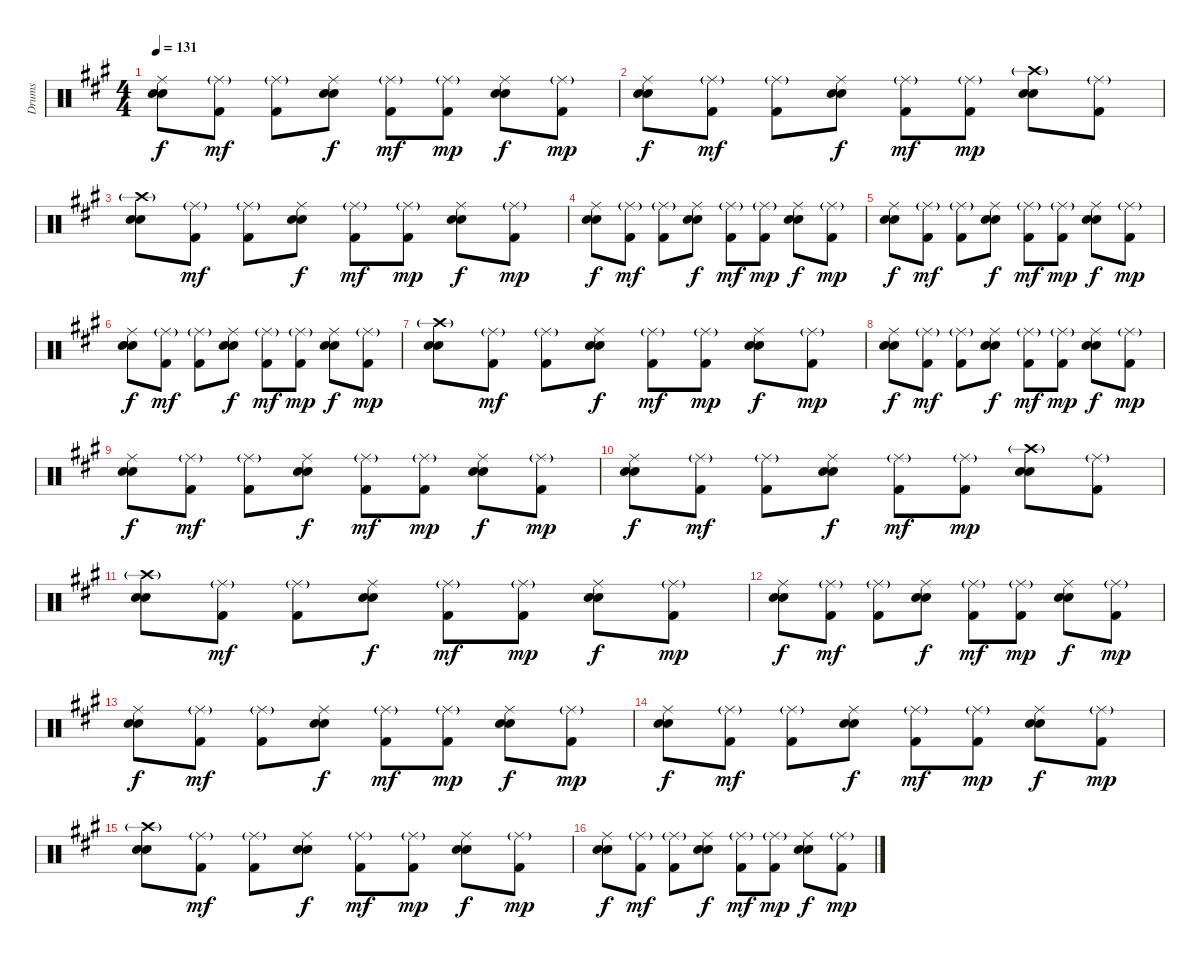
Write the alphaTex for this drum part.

\track ("Drums" "Drums") {instrument percussion}
\staff {score}
\articulation defaults
\ts (4 4)
\tempo 131
\clef neutral
\ks a
("Ride (middle)" "Electric Snare (hit)" "Snare (hit) 2").8{dy f} ("Ride (middle)"{g} "Kick (hit) 2").8{dy mf} ("Ride (middle)"{g} "Kick (hit) 2").8 ("Ride (middle)" "Electric Snare (hit)" "Snare (hit) 2").8{dy f} ("Ride (middle)"{g} "Kick (hit) 2").8{dy mf} ("Ride (middle)"{g} "Kick (hit) 2").8{dy mp} ("Ride (middle)" "Electric Snare (hit)" "Snare (hit) 2").8{dy f} ("Ride (middle)"{g} "Kick (hit) 2").8{dy mp} |
("Ride (middle)" "Electric Snare (hit)" "Snare (hit) 2").8{dy f} ("Ride (middle)"{g} "Kick (hit) 2").8{dy mf} ("Ride (middle)"{g} "Kick (hit) 2").8 ("Ride (middle)" "Electric Snare (hit)" "Snare (hit) 2").8{dy f} ("Ride (middle)"{g} "Kick (hit) 2").8{dy mf} ("Ride (middle)"{g} "Kick (hit) 2").8{dy mp} ("Crash high (hit)"{g} "Electric Snare (hit)" "Snare (hit) 2").8 ("Ride (middle)"{g} "Kick (hit) 2").8 |
("Crash high (hit)"{g} "Electric Snare (hit)" "Snare (hit) 2").8 ("Ride (middle)"{g} "Kick (hit) 2").8{dy mf} ("Ride (middle)"{g} "Kick (hit) 2").8 ("Ride (middle)" "Electric Snare (hit)" "Snare (hit) 2").8{dy f} ("Ride (middle)"{g} "Kick (hit) 2").8{dy mf} ("Ride (middle)"{g} "Kick (hit) 2").8{dy mp} ("Ride (middle)" "Electric Snare (hit)" "Snare (hit) 2").8{dy f} ("Ride (middle)"{g} "Kick (hit) 2").8{dy mp} |
("Ride (middle)" "Electric Snare (hit)" "Snare (hit) 2").8{dy f} ("Ride (middle)"{g} "Kick (hit) 2").8{dy mf} ("Ride (middle)"{g} "Kick (hit) 2").8 ("Ride (middle)" "Electric Snare (hit)" "Snare (hit) 2").8{dy f} ("Ride (middle)"{g} "Kick (hit) 2").8{dy mf} ("Ride (middle)"{g} "Kick (hit) 2").8{dy mp} ("Ride (middle)" "Electric Snare (hit)" "Snare (hit) 2").8{dy f} ("Ride (middle)"{g} "Kick (hit) 2").8{dy mp} |
("Ride (middle)" "Electric Snare (hit)" "Snare (hit) 2").8{dy f} ("Ride (middle)"{g} "Kick (hit) 2").8{dy mf} ("Ride (middle)"{g} "Kick (hit) 2").8 ("Ride (middle)" "Electric Snare (hit)" "Snare (hit) 2").8{dy f} ("Ride (middle)"{g} "Kick (hit) 2").8{dy mf} ("Ride (middle)"{g} "Kick (hit) 2").8{dy mp} ("Ride (middle)" "Electric Snare (hit)" "Snare (hit) 2").8{dy f} ("Ride (middle)"{g} "Kick (hit) 2").8{dy mp} |
("Ride (middle)" "Electric Snare (hit)" "Snare (hit) 2").8{dy f} ("Ride (middle)"{g} "Kick (hit) 2").8{dy mf} ("Ride (middle)"{g} "Kick (hit) 2").8 ("Ride (middle)" "Electric Snare (hit)" "Snare (hit) 2").8{dy f} ("Ride (middle)"{g} "Kick (hit) 2").8{dy mf} ("Ride (middle)"{g} "Kick (hit) 2").8{dy mp} ("Ride (middle)" "Electric Snare (hit)" "Snare (hit) 2").8{dy f} ("Ride (middle)"{g} "Kick (hit) 2").8{dy mp} |
("Crash high (hit)"{g} "Electric Snare (hit)" "Snare (hit) 2").8 ("Ride (middle)"{g} "Kick (hit) 2").8{dy mf} ("Ride (middle)"{g} "Kick (hit) 2").8 ("Ride (middle)" "Electric Snare (hit)" "Snare (hit) 2").8{dy f} ("Ride (middle)"{g} "Kick (hit) 2").8{dy mf} ("Ride (middle)"{g} "Kick (hit) 2").8{dy mp} ("Ride (middle)" "Electric Snare (hit)" "Snare (hit) 2").8{dy f} ("Ride (middle)"{g} "Kick (hit) 2").8{dy mp} |
("Ride (middle)" "Electric Snare (hit)" "Snare (hit) 2").8{dy f} ("Ride (middle)"{g} "Kick (hit) 2").8{dy mf} ("Ride (middle)"{g} "Kick (hit) 2").8 ("Ride (middle)" "Electric Snare (hit)" "Snare (hit) 2").8{dy f} ("Ride (middle)"{g} "Kick (hit) 2").8{dy mf} ("Ride (middle)"{g} "Kick (hit) 2").8{dy mp} ("Ride (middle)" "Electric Snare (hit)" "Snare (hit) 2").8{dy f} ("Ride (middle)"{g} "Kick (hit) 2").8{dy mp} |
("Ride (middle)" "Electric Snare (hit)" "Snare (hit) 2").8{dy f} ("Ride (middle)"{g} "Kick (hit) 2").8{dy mf} ("Ride (middle)"{g} "Kick (hit) 2").8 ("Ride (middle)" "Electric Snare (hit)" "Snare (hit) 2").8{dy f} ("Ride (middle)"{g} "Kick (hit) 2").8{dy mf} ("Ride (middle)"{g} "Kick (hit) 2").8{dy mp} ("Ride (middle)" "Electric Snare (hit)" "Snare (hit) 2").8{dy f} ("Ride (middle)"{g} "Kick (hit) 2").8{dy mp} |
("Ride (middle)" "Electric Snare (hit)" "Snare (hit) 2").8{dy f} ("Ride (middle)"{g} "Kick (hit) 2").8{dy mf} ("Ride (middle)"{g} "Kick (hit) 2").8 ("Ride (middle)" "Electric Snare (hit)" "Snare (hit) 2").8{dy f} ("Ride (middle)"{g} "Kick (hit) 2").8{dy mf} ("Ride (middle)"{g} "Kick (hit) 2").8{dy mp} ("Crash high (hit)"{g} "Electric Snare (hit)" "Snare (hit) 2").8 ("Ride (middle)"{g} "Kick (hit) 2").8 |
("Crash high (hit)"{g} "Electric Snare (hit)" "Snare (hit) 2").8 ("Ride (middle)"{g} "Kick (hit) 2").8{dy mf} ("Ride (middle)"{g} "Kick (hit) 2").8 ("Ride (middle)" "Electric Snare (hit)" "Snare (hit) 2").8{dy f} ("Ride (middle)"{g} "Kick (hit) 2").8{dy mf} ("Ride (middle)"{g} "Kick (hit) 2").8{dy mp} ("Ride (middle)" "Electric Snare (hit)" "Snare (hit) 2").8{dy f} ("Ride (middle)"{g} "Kick (hit) 2").8{dy mp} |
("Ride (middle)" "Electric Snare (hit)" "Snare (hit) 2").8{dy f} ("Ride (middle)"{g} "Kick (hit) 2").8{dy mf} ("Ride (middle)"{g} "Kick (hit) 2").8 ("Ride (middle)" "Electric Snare (hit)" "Snare (hit) 2").8{dy f} ("Ride (middle)"{g} "Kick (hit) 2").8{dy mf} ("Ride (middle)"{g} "Kick (hit) 2").8{dy mp} ("Ride (middle)" "Electric Snare (hit)" "Snare (hit) 2").8{dy f} ("Ride (middle)"{g} "Kick (hit) 2").8{dy mp} |
("Ride (middle)" "Electric Snare (hit)" "Snare (hit) 2").8{dy f} ("Ride (middle)"{g} "Kick (hit) 2").8{dy mf} ("Ride (middle)"{g} "Kick (hit) 2").8 ("Ride (middle)" "Electric Snare (hit)" "Snare (hit) 2").8{dy f} ("Ride (middle)"{g} "Kick (hit) 2").8{dy mf} ("Ride (middle)"{g} "Kick (hit) 2").8{dy mp} ("Ride (middle)" "Electric Snare (hit)" "Snare (hit) 2").8{dy f} ("Ride (middle)"{g} "Kick (hit) 2").8{dy mp} |
("Ride (middle)" "Electric Snare (hit)" "Snare (hit) 2").8{dy f} ("Ride (middle)"{g} "Kick (hit) 2").8{dy mf} ("Ride (middle)"{g} "Kick (hit) 2").8 ("Ride (middle)" "Electric Snare (hit)" "Snare (hit) 2").8{dy f} ("Ride (middle)"{g} "Kick (hit) 2").8{dy mf} ("Ride (middle)"{g} "Kick (hit) 2").8{dy mp} ("Ride (middle)" "Electric Snare (hit)" "Snare (hit) 2").8{dy f} ("Ride (middle)"{g} "Kick (hit) 2").8{dy mp} |
("Crash high (hit)"{g} "Electric Snare (hit)" "Snare (hit) 2").8 ("Ride (middle)"{g} "Kick (hit) 2").8{dy mf} ("Ride (middle)"{g} "Kick (hit) 2").8 ("Ride (middle)" "Electric Snare (hit)" "Snare (hit) 2").8{dy f} ("Ride (middle)"{g} "Kick (hit) 2").8{dy mf} ("Ride (middle)"{g} "Kick (hit) 2").8{dy mp} ("Ride (middle)" "Electric Snare (hit)" "Snare (hit) 2").8{dy f} ("Ride (middle)"{g} "Kick (hit) 2").8{dy mp} |
("Ride (middle)" "Electric Snare (hit)" "Snare (hit) 2").8{dy f} ("Ride (middle)"{g} "Kick (hit) 2").8{dy mf} ("Ride (middle)"{g} "Kick (hit) 2").8 ("Ride (middle)" "Electric Snare (hit)" "Snare (hit) 2").8{dy f} ("Ride (middle)"{g} "Kick (hit) 2").8{dy mf} ("Ride (middle)"{g} "Kick (hit) 2").8{dy mp} ("Ride (middle)" "Electric Snare (hit)" "Snare (hit) 2").8{dy f} ("Ride (middle)"{g} "Kick (hit) 2").8{dy mp}
